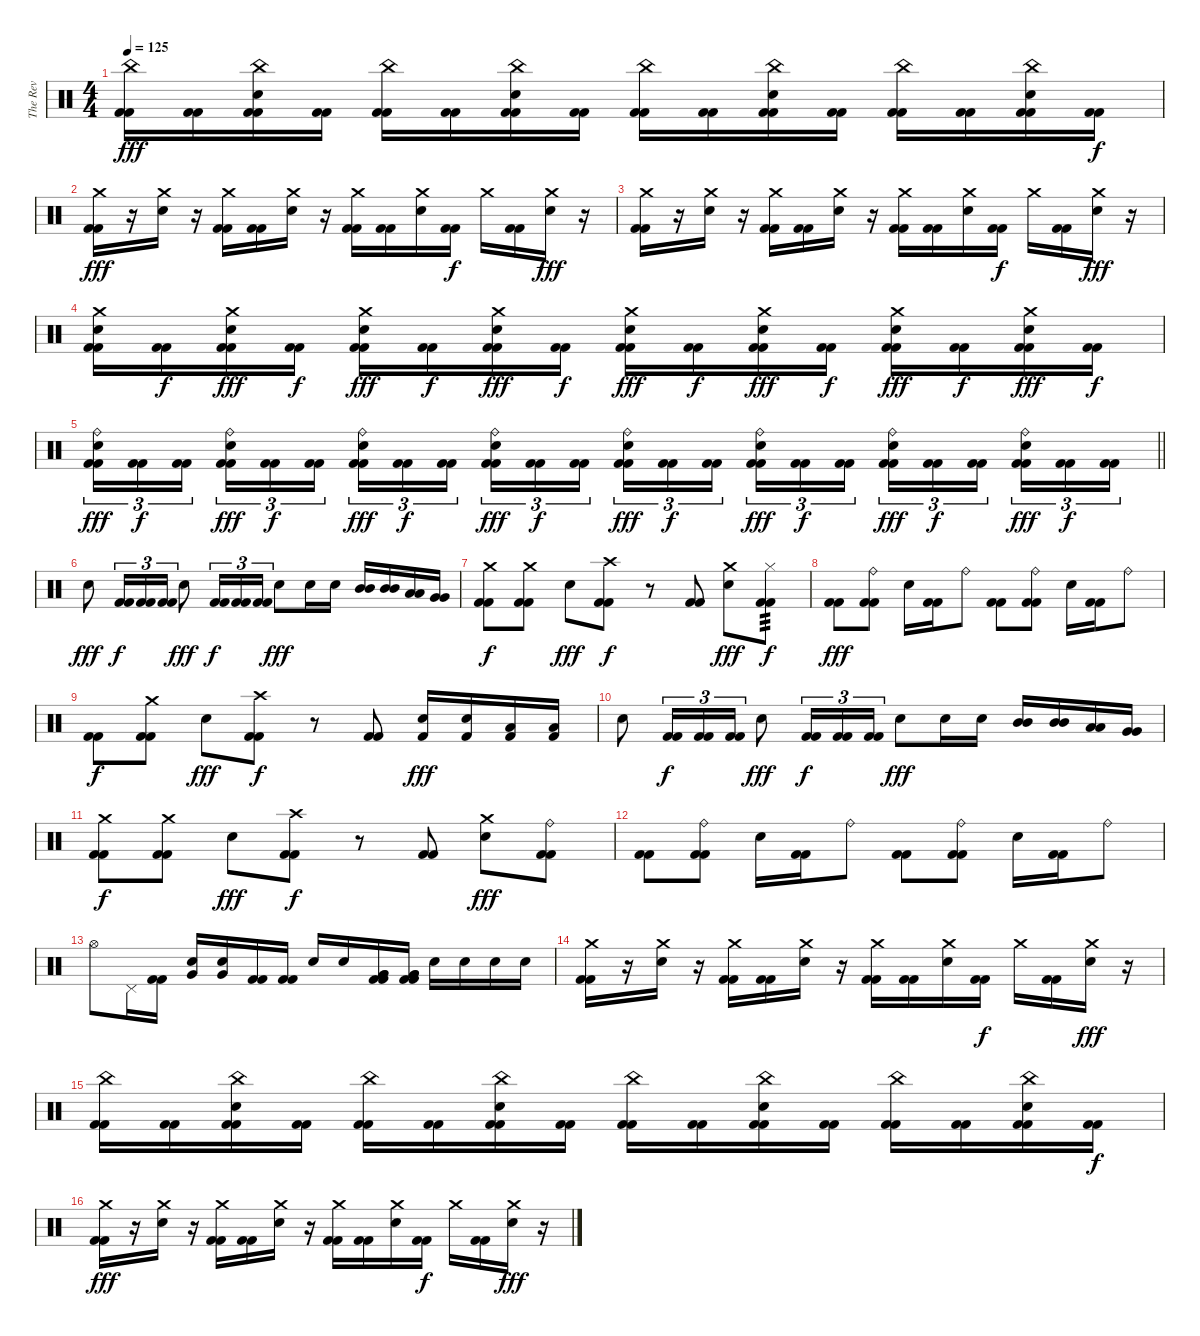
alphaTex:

\track ("The Rev" "The Rev") {mute instrument percussion}
\staff {score}
\articulation defaults
\ts (4 4)
\tempo 125
\clef neutral
\ks c
("China (hit)" "Kick (hit) 2" "Kick (hit) 2").16{dy fff} ("Kick (hit) 2" "Kick (hit) 2").16 ("China (hit)" "Electric Snare (hit)" "Kick (hit) 2" "Kick (hit) 2").16 ("Kick (hit) 2" "Kick (hit) 2").16 ("China (hit)" "Kick (hit) 2" "Kick (hit) 2").16 ("Kick (hit) 2" "Kick (hit) 2").16 ("China (hit)" "Electric Snare (hit)" "Kick (hit) 2" "Kick (hit) 2").16 ("Kick (hit) 2" "Kick (hit) 2").16 ("China (hit)" "Kick (hit) 2" "Kick (hit) 2").16 ("Kick (hit) 2" "Kick (hit) 2").16 ("China (hit)" "Electric Snare (hit)" "Kick (hit) 2" "Kick (hit) 2").16 ("Kick (hit) 2" "Kick (hit) 2").16 ("China (hit)" "Kick (hit) 2" "Kick (hit) 2").16 ("Kick (hit) 2" "Kick (hit) 2").16 ("China (hit)" "Electric Snare (hit)" "Kick (hit) 2" "Kick (hit) 2").16 ("Kick (hit) 2" "Kick (hit) 2").16{dy f} |
("Crash medium (hit)" "Kick (hit) 2" "Kick (hit) 2").16{dy fff} r.16 ("Crash medium (hit)" "Electric Snare (hit)").16 r.16 ("Crash medium (hit)" "Kick (hit) 2" "Kick (hit) 2").16 ("Kick (hit) 2" "Kick (hit) 2").16 ("Crash medium (hit)" "Electric Snare (hit)").16 r.16 ("Crash medium (hit)" "Kick (hit) 2" "Kick (hit) 2").16 ("Kick (hit) 2" "Kick (hit) 2").16 ("Crash medium (hit)" "Electric Snare (hit)").16 ("Kick (hit) 2" "Kick (hit) 2").16{dy f} "Crash medium (hit)".16 ("Kick (hit) 2" "Kick (hit) 2").16 ("Crash medium (hit)" "Electric Snare (hit)").16{dy fff} r.16 |
("Crash medium (hit)" "Kick (hit) 2" "Kick (hit) 2").16 r.16 ("Crash medium (hit)" "Electric Snare (hit)").16 r.16 ("Crash medium (hit)" "Kick (hit) 2" "Kick (hit) 2").16 ("Kick (hit) 2" "Kick (hit) 2").16 ("Crash medium (hit)" "Electric Snare (hit)").16 r.16 ("Crash medium (hit)" "Kick (hit) 2" "Kick (hit) 2").16 ("Kick (hit) 2" "Kick (hit) 2").16 ("Crash medium (hit)" "Electric Snare (hit)").16 ("Kick (hit) 2" "Kick (hit) 2").16{dy f} "Crash medium (hit)".16 ("Kick (hit) 2" "Kick (hit) 2").16 ("Crash medium (hit)" "Electric Snare (hit)").16{dy fff} r.16 |
("Crash medium (hit)" "Electric Snare (hit)" "Kick (hit) 2" "Kick (hit) 2").16 ("Kick (hit) 2" "Kick (hit) 2").16{dy f} ("Crash medium (hit)" "Electric Snare (hit)" "Kick (hit) 2" "Kick (hit) 2").16{dy fff} ("Kick (hit) 2" "Kick (hit) 2").16{dy f} ("Crash medium (hit)" "Electric Snare (hit)" "Kick (hit) 2" "Kick (hit) 2").16{dy fff} ("Kick (hit) 2" "Kick (hit) 2").16{dy f} ("Crash medium (hit)" "Electric Snare (hit)" "Kick (hit) 2" "Kick (hit) 2").16{dy fff} ("Kick (hit) 2" "Kick (hit) 2").16{dy f} ("Crash medium (hit)" "Electric Snare (hit)" "Kick (hit) 2" "Kick (hit) 2").16{dy fff} ("Kick (hit) 2" "Kick (hit) 2").16{dy f} ("Crash medium (hit)" "Electric Snare (hit)" "Kick (hit) 2" "Kick (hit) 2").16{dy fff} ("Kick (hit) 2" "Kick (hit) 2").16{dy f} ("Crash medium (hit)" "Electric Snare (hit)" "Kick (hit) 2" "Kick (hit) 2").16{dy fff} ("Kick (hit) 2" "Kick (hit) 2").16{dy f} ("Crash medium (hit)" "Electric Snare (hit)" "Kick (hit) 2" "Kick (hit) 2").16{dy fff} ("Kick (hit) 2" "Kick (hit) 2").16{dy f} |
\barLineRight lightlight
("Ride (bell)" "Electric Snare (hit)" "Kick (hit) 2" "Kick (hit) 2").16{tu (3 2) dy fff} ("Kick (hit) 2" "Kick (hit) 2").16{tu (3 2) dy f} ("Kick (hit) 2" "Kick (hit) 2").16{tu (3 2) beam splitsecondary} ("Ride (bell)" "Electric Snare (hit)" "Kick (hit) 2" "Kick (hit) 2").16{tu (3 2) dy fff} ("Kick (hit) 2" "Kick (hit) 2").16{tu (3 2) dy f} ("Kick (hit) 2" "Kick (hit) 2").16{tu (3 2)} ("Ride (bell)" "Electric Snare (hit)" "Kick (hit) 2" "Kick (hit) 2").16{tu (3 2) dy fff} ("Kick (hit) 2" "Kick (hit) 2").16{tu (3 2) dy f} ("Kick (hit) 2" "Kick (hit) 2").16{tu (3 2) beam splitsecondary} ("Ride (bell)" "Electric Snare (hit)" "Kick (hit) 2" "Kick (hit) 2").16{tu (3 2) dy fff} ("Kick (hit) 2" "Kick (hit) 2").16{tu (3 2) dy f} ("Kick (hit) 2" "Kick (hit) 2").16{tu (3 2)} ("Ride (bell)" "Electric Snare (hit)" "Kick (hit) 2" "Kick (hit) 2").16{tu (3 2) dy fff} ("Kick (hit) 2" "Kick (hit) 2").16{tu (3 2) dy f} ("Kick (hit) 2" "Kick (hit) 2").16{tu (3 2) beam splitsecondary} ("Ride (bell)" "Electric Snare (hit)" "Kick (hit) 2" "Kick (hit) 2").16{tu (3 2) dy fff} ("Kick (hit) 2" "Kick (hit) 2").16{tu (3 2) dy f} ("Kick (hit) 2" "Kick (hit) 2").16{tu (3 2)} ("Ride (bell)" "Electric Snare (hit)" "Kick (hit) 2" "Kick (hit) 2").16{tu (3 2) dy fff} ("Kick (hit) 2" "Kick (hit) 2").16{tu (3 2) dy f} ("Kick (hit) 2" "Kick (hit) 2").16{tu (3 2) beam splitsecondary} ("Ride (bell)" "Electric Snare (hit)" "Kick (hit) 2" "Kick (hit) 2").16{tu (3 2) dy fff} ("Kick (hit) 2" "Kick (hit) 2").16{tu (3 2) dy f} ("Kick (hit) 2" "Kick (hit) 2").16{tu (3 2)} |
"Electric Snare (hit)".8{dy fff} ("Kick (hit) 2" "Kick (hit) 2").16{tu (3 2) dy f} ("Kick (hit) 2" "Kick (hit) 2").16{tu (3 2)} ("Kick (hit) 2" "Kick (hit) 2").16{tu (3 2)} "Electric Snare (hit)".8{dy fff} ("Kick (hit) 2" "Kick (hit) 2").16{tu (3 2) dy f} ("Kick (hit) 2" "Kick (hit) 2").16{tu (3 2)} ("Kick (hit) 2" "Kick (hit) 2").16{tu (3 2)} "Electric Snare (hit)".8{dy fff} "Electric Snare (hit)".16 "Electric Snare (hit)".16 ("Mid Tom (hit)" "Mid Tom (hit)").16 ("Mid Tom (hit)" "Mid Tom (hit)").16 ("Low Tom (hit)" "Low Tom (hit)").16 ("Very Low Tom (hit)" "Very Low Tom (hit)").16 |
("Crash medium (hit)" "Kick (hit) 2" "Kick (hit) 2").8{dy f} ("Crash medium (hit)" "Kick (hit) 2" "Kick (hit) 2").8 "Electric Snare (hit)".8{dy fff} ("Crash high (hit)" "Kick (hit) 2" "Kick (hit) 2").8{dy f} r.8 ("Kick (hit) 2" "Kick (hit) 2").8 ("Crash medium (hit)" "Electric Snare (hit)").8{dy fff} ("Hi-Hat (closed)" "Kick (hit) 2" "Kick (hit) 2").8{tp 3 dy f} |
("Kick (hit) 2" "Kick (hit) 2").8{dy fff} ("Ride (bell)" "Kick (hit) 2" "Kick (hit) 2").8 "Electric Snare (hit)".16 ("Kick (hit) 2" "Kick (hit) 2").16 "Ride (bell)".8 ("Kick (hit) 2" "Kick (hit) 2").8 ("Ride (bell)" "Kick (hit) 2" "Kick (hit) 2").8 "Electric Snare (hit)".16 ("Kick (hit) 2" "Kick (hit) 2").16 "Ride (bell)".8 |
("Kick (hit) 2" "Kick (hit) 2").8{dy f} ("Crash medium (hit)" "Kick (hit) 2" "Kick (hit) 2").8 "Electric Snare (hit)".8{dy fff} ("Crash high (hit)" "Kick (hit) 2" "Kick (hit) 2").8{dy f} r.8 ("Kick (hit) 2" "Kick (hit) 2").8 ("Electric Snare (hit)" "Kick (hit) 2").16{dy fff} ("Electric Snare (hit)" "Kick (hit) 2").16 ("Low Tom (hit)" "Kick (hit) 2").16 ("Low Tom (hit)" "Kick (hit) 2").16 |
"Electric Snare (hit)".8 ("Kick (hit) 2" "Kick (hit) 2").16{tu (3 2) dy f} ("Kick (hit) 2" "Kick (hit) 2").16{tu (3 2)} ("Kick (hit) 2" "Kick (hit) 2").16{tu (3 2)} "Electric Snare (hit)".8{dy fff} ("Kick (hit) 2" "Kick (hit) 2").16{tu (3 2) dy f} ("Kick (hit) 2" "Kick (hit) 2").16{tu (3 2)} ("Kick (hit) 2" "Kick (hit) 2").16{tu (3 2)} "Electric Snare (hit)".8{dy fff} "Electric Snare (hit)".16 "Electric Snare (hit)".16 ("Mid Tom (hit)" "Mid Tom (hit)").16 ("Mid Tom (hit)" "Mid Tom (hit)").16 ("Low Tom (hit)" "Low Tom (hit)").16 ("Very Low Tom (hit)" "Very Low Tom (hit)").16 |
("Crash medium (hit)" "Kick (hit) 2" "Kick (hit) 2").8{dy f} ("Crash medium (hit)" "Kick (hit) 2" "Kick (hit) 2").8 "Electric Snare (hit)".8{dy fff} ("Crash high (hit)" "Kick (hit) 2" "Kick (hit) 2").8{dy f} r.8 ("Kick (hit) 2" "Kick (hit) 2").8 ("Crash medium (hit)" "Electric Snare (hit)").8{dy fff} ("Ride (bell)" "Kick (hit) 2" "Kick (hit) 2").8 |
("Kick (hit) 2" "Kick (hit) 2").8 ("Ride (bell)" "Kick (hit) 2" "Kick (hit) 2").8 "Electric Snare (hit)".16 ("Kick (hit) 2" "Kick (hit) 2").16 "Ride (bell)".8 ("Kick (hit) 2" "Kick (hit) 2").8 ("Ride (bell)" "Kick (hit) 2" "Kick (hit) 2").8 "Electric Snare (hit)".16 ("Kick (hit) 2" "Kick (hit) 2").16 "Ride (bell)".8 |
"Hi-Hat (open)".8 "Pedal Hi-Hat (hit)".16 ("Kick (hit) 2" "Kick (hit) 2").16 ("Very Low Tom (hit)" "Electric Snare (hit)").16 ("Very Low Tom (hit)" "Electric Snare (hit)").16 ("Kick (hit) 2" "Kick (hit) 2").16 ("Kick (hit) 2" "Kick (hit) 2").16 "Electric Snare (hit)".16 "Electric Snare (hit)".16 ("Very Low Tom (hit)" "Very Low Tom (hit)" "Kick (hit) 2" "Kick (hit) 2").16 ("Very Low Tom (hit)" "Very Low Tom (hit)" "Kick (hit) 2" "Kick (hit) 2").16 "Electric Snare (hit)".16 "Electric Snare (hit)".16 "Electric Snare (hit)".16 "Electric Snare (hit)".16 |
("Crash medium (hit)" "Kick (hit) 2" "Kick (hit) 2").16 r.16 ("Crash medium (hit)" "Electric Snare (hit)").16 r.16 ("Crash medium (hit)" "Kick (hit) 2" "Kick (hit) 2").16 ("Kick (hit) 2" "Kick (hit) 2").16 ("Crash medium (hit)" "Electric Snare (hit)").16 r.16 ("Crash medium (hit)" "Kick (hit) 2" "Kick (hit) 2").16 ("Kick (hit) 2" "Kick (hit) 2").16 ("Crash medium (hit)" "Electric Snare (hit)").16 ("Kick (hit) 2" "Kick (hit) 2").16{dy f} "Crash medium (hit)".16 ("Kick (hit) 2" "Kick (hit) 2").16 ("Crash medium (hit)" "Electric Snare (hit)").16{dy fff} r.16 |
("China (hit)" "Kick (hit) 2" "Kick (hit) 2").16 ("Kick (hit) 2" "Kick (hit) 2").16 ("China (hit)" "Electric Snare (hit)" "Kick (hit) 2" "Kick (hit) 2").16 ("Kick (hit) 2" "Kick (hit) 2").16 ("China (hit)" "Kick (hit) 2" "Kick (hit) 2").16 ("Kick (hit) 2" "Kick (hit) 2").16 ("China (hit)" "Electric Snare (hit)" "Kick (hit) 2" "Kick (hit) 2").16 ("Kick (hit) 2" "Kick (hit) 2").16 ("China (hit)" "Kick (hit) 2" "Kick (hit) 2").16 ("Kick (hit) 2" "Kick (hit) 2").16 ("China (hit)" "Electric Snare (hit)" "Kick (hit) 2" "Kick (hit) 2").16 ("Kick (hit) 2" "Kick (hit) 2").16 ("China (hit)" "Kick (hit) 2" "Kick (hit) 2").16 ("Kick (hit) 2" "Kick (hit) 2").16 ("China (hit)" "Electric Snare (hit)" "Kick (hit) 2" "Kick (hit) 2").16 ("Kick (hit) 2" "Kick (hit) 2").16{dy f} |
("Crash medium (hit)" "Kick (hit) 2" "Kick (hit) 2").16{dy fff} r.16 ("Crash medium (hit)" "Electric Snare (hit)").16 r.16 ("Crash medium (hit)" "Kick (hit) 2" "Kick (hit) 2").16 ("Kick (hit) 2" "Kick (hit) 2").16 ("Crash medium (hit)" "Electric Snare (hit)").16 r.16 ("Crash medium (hit)" "Kick (hit) 2" "Kick (hit) 2").16 ("Kick (hit) 2" "Kick (hit) 2").16 ("Crash medium (hit)" "Electric Snare (hit)").16 ("Kick (hit) 2" "Kick (hit) 2").16{dy f} "Crash medium (hit)".16 ("Kick (hit) 2" "Kick (hit) 2").16 ("Crash medium (hit)" "Electric Snare (hit)").16{dy fff} r.16
